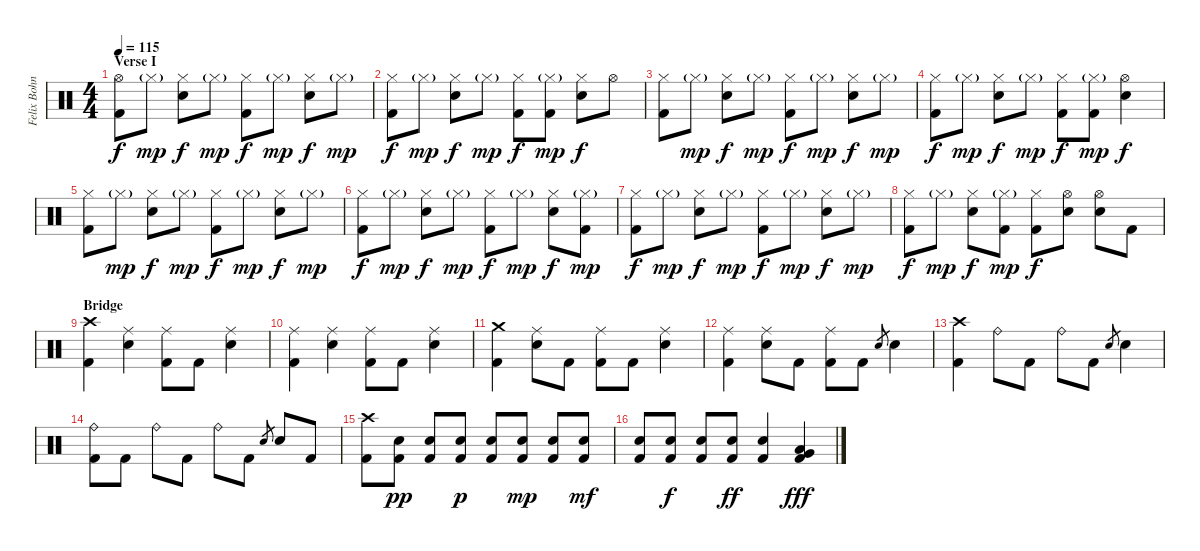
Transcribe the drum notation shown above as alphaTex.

\track ("Felix Bohnke" "Felix Bohn") {instrument percussion}
\staff {score}
\articulation defaults
\ts (4 4)
\section ("" "Verse I")
\tempo 115
\clef neutral
\ks c
("Hi-Hat (open)" "Kick (hit) 2").8{dy f} "Hi-Hat (closed)"{g}.8{dy mp} ("Hi-Hat (closed)" "Electric Snare (hit)").8{dy f} "Hi-Hat (closed)"{g}.8{dy mp} ("Hi-Hat (closed)" "Kick (hit) 2").8{dy f} "Hi-Hat (closed)"{g}.8{dy mp} ("Hi-Hat (closed)" "Electric Snare (hit)").8{dy f} "Hi-Hat (closed)"{g}.8{dy mp} |
("Hi-Hat (closed)" "Kick (hit) 2").8{dy f} "Hi-Hat (closed)"{g}.8{dy mp} ("Hi-Hat (closed)" "Electric Snare (hit)").8{dy f} "Hi-Hat (closed)"{g}.8{dy mp} ("Hi-Hat (closed)" "Kick (hit) 2").8{dy f} ("Hi-Hat (closed)"{g} "Kick (hit) 2").8{dy mp} ("Hi-Hat (closed)" "Electric Snare (hit)").8{dy f} "Hi-Hat (open)".8 |
("Hi-Hat (closed)" "Kick (hit) 2").8 "Hi-Hat (closed)"{g}.8{dy mp} ("Hi-Hat (closed)" "Electric Snare (hit)").8{dy f} "Hi-Hat (closed)"{g}.8{dy mp} ("Hi-Hat (closed)" "Kick (hit) 2").8{dy f} "Hi-Hat (closed)"{g}.8{dy mp} ("Hi-Hat (closed)" "Electric Snare (hit)").8{dy f} "Hi-Hat (closed)"{g}.8{dy mp} |
("Hi-Hat (closed)" "Kick (hit) 2").8{dy f} "Hi-Hat (closed)"{g}.8{dy mp} ("Hi-Hat (closed)" "Electric Snare (hit)").8{dy f} "Hi-Hat (closed)"{g}.8{dy mp} ("Hi-Hat (closed)" "Kick (hit) 2").8{dy f} ("Hi-Hat (closed)"{g} "Kick (hit) 2").8{dy mp} ("Hi-Hat (open)" "Electric Snare (hit)").4{dy f} |
("Hi-Hat (closed)" "Kick (hit) 2").8 "Hi-Hat (closed)"{g}.8{dy mp} ("Hi-Hat (closed)" "Electric Snare (hit)").8{dy f} "Hi-Hat (closed)"{g}.8{dy mp} ("Hi-Hat (closed)" "Kick (hit) 2").8{dy f} "Hi-Hat (closed)"{g}.8{dy mp} ("Hi-Hat (closed)" "Electric Snare (hit)").8{dy f} "Hi-Hat (closed)"{g}.8{dy mp} |
("Hi-Hat (closed)" "Kick (hit) 2").8{dy f} "Hi-Hat (closed)"{g}.8{dy mp} ("Hi-Hat (closed)" "Electric Snare (hit)").8{dy f} "Hi-Hat (closed)"{g}.8{dy mp} ("Hi-Hat (closed)" "Kick (hit) 2").8{dy f} "Hi-Hat (closed)"{g}.8{dy mp} ("Hi-Hat (closed)" "Electric Snare (hit)").8{dy f} ("Hi-Hat (closed)"{g} "Kick (hit) 2").8{dy mp} |
("Hi-Hat (closed)" "Kick (hit) 2").8{dy f} "Hi-Hat (closed)"{g}.8{dy mp} ("Hi-Hat (closed)" "Electric Snare (hit)").8{dy f} "Hi-Hat (closed)"{g}.8{dy mp} ("Hi-Hat (closed)" "Kick (hit) 2").8{dy f} "Hi-Hat (closed)"{g}.8{dy mp} ("Hi-Hat (closed)" "Electric Snare (hit)").8{dy f} "Hi-Hat (closed)"{g}.8{dy mp} |
("Hi-Hat (closed)" "Kick (hit) 2").8{dy f} "Hi-Hat (closed)"{g}.8{dy mp} ("Hi-Hat (closed)" "Electric Snare (hit)").8{dy f} ("Hi-Hat (closed)"{g} "Kick (hit) 2").8{dy mp} ("Hi-Hat (closed)" "Kick (hit) 2").8{dy f} ("Hi-Hat (open)" "Electric Snare (hit)").8 ("Hi-Hat (open)" "Electric Snare (hit)").8 "Kick (hit) 2".8 |
\section ("" "Bridge")
("Crash high (hit)" "Kick (hit) 2").4 ("Ride (middle)" "Electric Snare (hit)").4 ("Ride (middle)" "Kick (hit) 2").8 "Kick (hit) 2".8 ("Ride (middle)" "Electric Snare (hit)").4 |
("Ride (middle)" "Kick (hit) 2").4 ("Ride (middle)" "Electric Snare (hit)").4 ("Ride (middle)" "Kick (hit) 2").8 "Kick (hit) 2".8 ("Ride (middle)" "Electric Snare (hit)").4 |
("Crash medium (hit)" "Kick (hit) 2").4 ("Ride (middle)" "Electric Snare (hit)").8 "Kick (hit) 2".8 ("Ride (middle)" "Kick (hit) 2").8 "Kick (hit) 2".8 ("Ride (middle)" "Electric Snare (hit)").4 |
("Ride (middle)" "Kick (hit) 2").4 ("Ride (middle)" "Electric Snare (hit)").8 "Kick (hit) 2".8 ("Ride (middle)" "Kick (hit) 2").8 "Kick (hit) 2".8 "Electric Snare (hit)".8{gr} "Electric Snare (hit)".4 |
("Crash high (hit)" "Kick (hit) 2").4 "Ride (bell)".8 "Kick (hit) 2".8 "Ride (bell)".8 "Kick (hit) 2".8 "Electric Snare (hit)".8{gr} "Electric Snare (hit)".4 |
("Ride (bell)" "Kick (hit) 2").8 "Kick (hit) 2".8 "Ride (bell)".8 "Kick (hit) 2".8 "Ride (bell)".8 "Kick (hit) 2".8 "Electric Snare (hit)".8{gr} "Electric Snare (hit)".8 "Kick (hit) 2".8 |
("Crash high (hit)" "Kick (hit) 2").8 ("Electric Snare (hit)" "Kick (hit) 2").8{dy pp} ("Electric Snare (hit)" "Kick (hit) 2").8 ("Electric Snare (hit)" "Kick (hit) 2").8{dy p} ("Electric Snare (hit)" "Kick (hit) 2").8 ("Electric Snare (hit)" "Kick (hit) 2").8{dy mp} ("Electric Snare (hit)" "Kick (hit) 2").8 ("Electric Snare (hit)" "Kick (hit) 2").8{dy mf} |
("Electric Snare (hit)" "Kick (hit) 2").8 ("Electric Snare (hit)" "Kick (hit) 2").8{dy f} ("Electric Snare (hit)" "Kick (hit) 2").8 ("Electric Snare (hit)" "Kick (hit) 2").8{dy ff} ("Electric Snare (hit)" "Kick (hit) 2").4 ("Very Low Tom (hit)" "Low Floor Tom (hit)" "Kick (hit) 2").4{dy fff}
